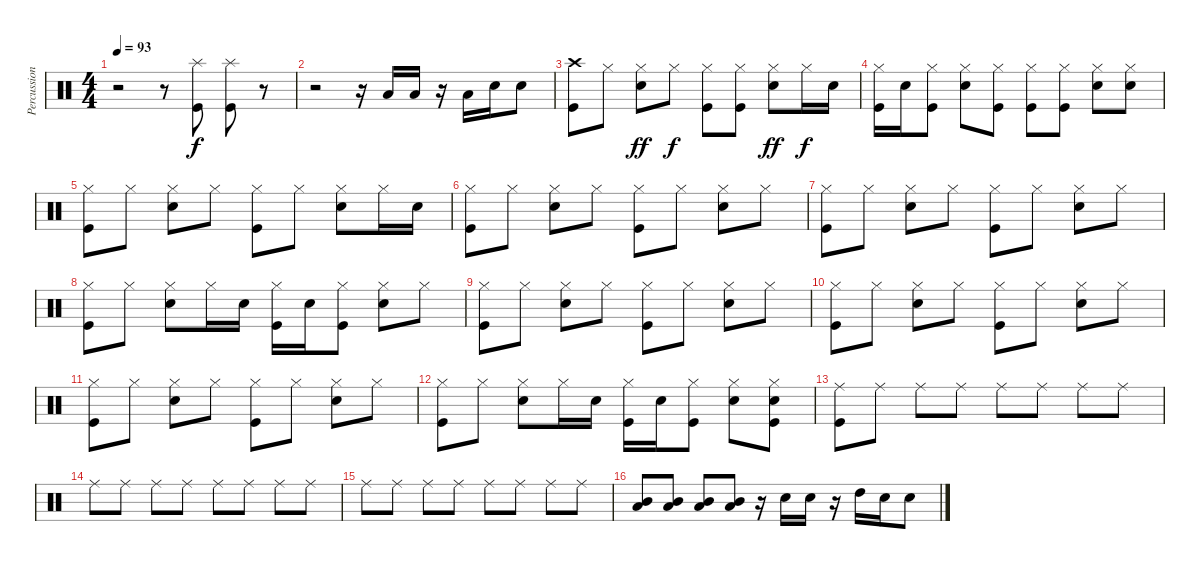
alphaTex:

\track ("Percussion" "Percussion") {instrument percussion}
\staff {score}
\articulation defaults
\ts (4 4)
\tempo 93
\clef neutral
\ks c
r.2{dy f} r.8 ("Splash (hit)" "Kick (hit)").8 ("Splash (hit)" "Kick (hit)").8 r.8 |
r.2 r.16 "Low Tom (hit)".16 "Low Tom (hit)".16 r.16 "Low Tom (hit)".16 "Snare (hit) 2".16 "Snare (hit) 2".8 |
("Crash high (hit)" "Kick (hit)").8 "Hi-Hat (closed)".8 ("Hi-Hat (closed)" "Snare (hit) 2").8{dy ff} "Hi-Hat (closed)".8{dy f} ("Hi-Hat (closed)" "Kick (hit)").8 ("Hi-Hat (closed)" "Kick (hit)").8 ("Hi-Hat (closed)" "Snare (hit) 2").8{dy ff} "Hi-Hat (closed)".16{dy f} "Snare (hit) 2".16 |
("Hi-Hat (closed)" "Kick (hit)").16 "Snare (hit) 2".16 ("Hi-Hat (closed)" "Kick (hit)").8 ("Hi-Hat (closed)" "Snare (hit) 2").8 ("Hi-Hat (closed)" "Kick (hit)").8 ("Hi-Hat (closed)" "Kick (hit)").8 ("Hi-Hat (closed)" "Kick (hit)").8 ("Hi-Hat (closed)" "Snare (hit) 2").8 ("Hi-Hat (closed)" "Snare (hit) 2").8 |
("Hi-Hat (closed)" "Kick (hit)").8 "Hi-Hat (closed)".8 ("Hi-Hat (closed)" "Snare (hit) 2").8 "Hi-Hat (closed)".8 ("Hi-Hat (closed)" "Kick (hit)").8 "Hi-Hat (closed)".8 ("Hi-Hat (closed)" "Snare (hit) 2").8 "Hi-Hat (closed)".16 "Snare (hit) 2".16 |
("Hi-Hat (closed)" "Kick (hit)").8 "Hi-Hat (closed)".8 ("Hi-Hat (closed)" "Snare (hit) 2").8 "Hi-Hat (closed)".8 ("Hi-Hat (closed)" "Kick (hit)").8 "Hi-Hat (closed)".8 ("Hi-Hat (closed)" "Snare (hit) 2").8 "Hi-Hat (closed)".8 |
("Hi-Hat (closed)" "Kick (hit)").8 "Hi-Hat (closed)".8 ("Hi-Hat (closed)" "Snare (hit) 2").8 "Hi-Hat (closed)".8 ("Hi-Hat (closed)" "Kick (hit)").8 "Hi-Hat (closed)".8 ("Hi-Hat (closed)" "Snare (hit) 2").8 "Hi-Hat (closed)".8 |
("Hi-Hat (closed)" "Kick (hit)").8 "Hi-Hat (closed)".8 ("Hi-Hat (closed)" "Snare (hit) 2").8 "Hi-Hat (closed)".16 "Snare (hit) 2".16 ("Hi-Hat (closed)" "Kick (hit)").16 "Snare (hit) 2".16 ("Hi-Hat (closed)" "Kick (hit)").8 ("Hi-Hat (closed)" "Snare (hit) 2").8 "Hi-Hat (closed)".8 |
("Hi-Hat (closed)" "Kick (hit)").8 "Hi-Hat (closed)".8 ("Hi-Hat (closed)" "Snare (hit) 2").8 "Hi-Hat (closed)".8 ("Hi-Hat (closed)" "Kick (hit)").8 "Hi-Hat (closed)".8 ("Hi-Hat (closed)" "Snare (hit) 2").8 "Hi-Hat (closed)".8 |
("Hi-Hat (closed)" "Kick (hit)").8 "Hi-Hat (closed)".8 ("Hi-Hat (closed)" "Snare (hit) 2").8 "Hi-Hat (closed)".8 ("Hi-Hat (closed)" "Kick (hit)").8 "Hi-Hat (closed)".8 ("Hi-Hat (closed)" "Snare (hit) 2").8 "Hi-Hat (closed)".8 |
("Hi-Hat (closed)" "Kick (hit)").8 "Hi-Hat (closed)".8 ("Hi-Hat (closed)" "Snare (hit) 2").8 "Hi-Hat (closed)".8 ("Hi-Hat (closed)" "Kick (hit)").8 "Hi-Hat (closed)".8 ("Hi-Hat (closed)" "Snare (hit) 2").8 "Hi-Hat (closed)".8 |
("Hi-Hat (closed)" "Kick (hit)").8 "Hi-Hat (closed)".8 ("Hi-Hat (closed)" "Snare (hit) 2").8 "Hi-Hat (closed)".16 "Snare (hit) 2".16 ("Hi-Hat (closed)" "Kick (hit)").16 "Snare (hit) 2".16 ("Hi-Hat (closed)" "Kick (hit)").8 ("Hi-Hat (closed)" "Snare (hit) 2").8 ("Hi-Hat (closed)" "Snare (hit) 2" "Kick (hit)").8 |
("Ride (middle)" "Kick (hit)").8 "Ride (middle)".8 "Ride (middle)".8 "Ride (middle)".8 "Ride (middle)".8 "Ride (middle)".8 "Ride (middle)".8 "Ride (middle)".8 |
"Ride (middle)".8 "Ride (middle)".8 "Ride (middle)".8 "Ride (middle)".8 "Ride (middle)".8 "Ride (middle)".8 "Ride (middle)".8 "Ride (middle)".8 |
"Ride (middle)".8 "Ride (middle)".8 "Ride (middle)".8 "Ride (middle)".8 "Ride (middle)".8 "Ride (middle)".8 "Ride (middle)".8 "Ride (middle)".8 |
("Mid Tom (hit)" "Low Floor Tom (hit)").8 ("Mid Tom (hit)" "Low Floor Tom (hit)").8 ("Mid Tom (hit)" "Low Floor Tom (hit)").8 ("Mid Tom (hit)" "Low Floor Tom (hit)").8 r.16 "Snare (hit) 2".16 "Snare (hit) 2".16 r.16 "High Tom (hit)".16 "Snare (hit) 2".16 "Snare (hit) 2".8
